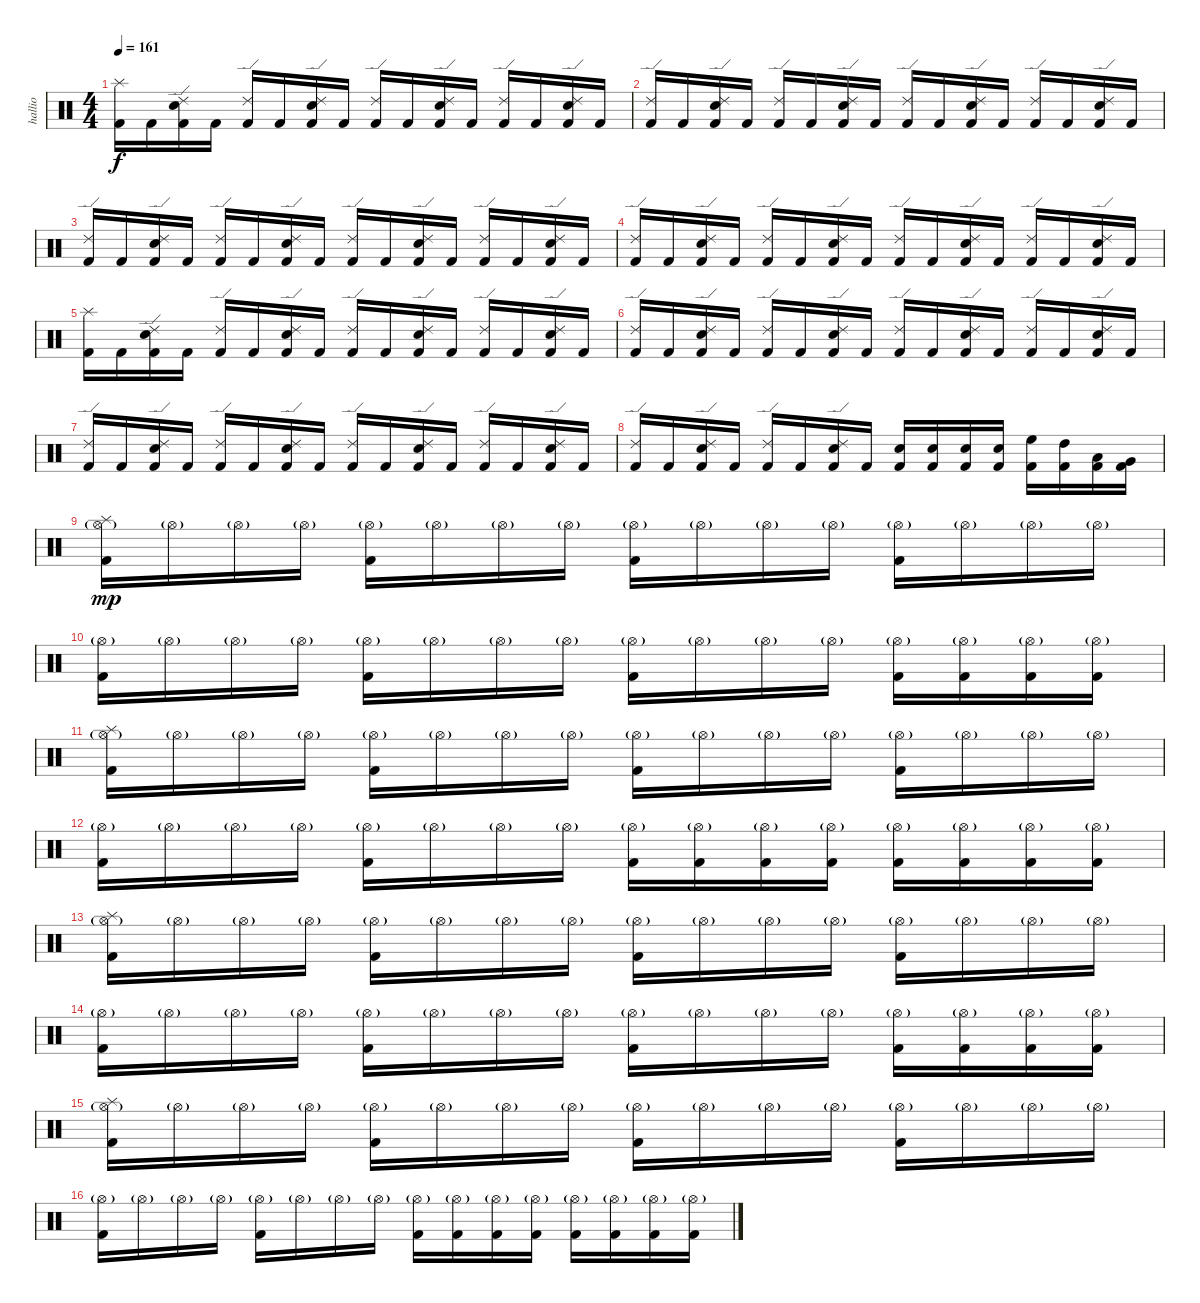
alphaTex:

\track ("hallio" "hallio") {instrument percussion}
\staff {score}
\articulation defaults
\ts (4 4)
\tempo 161
\clef neutral
\ks c
("Kick (hit) 2" "Splash (hit)").16{dy f} "Kick (hit) 2".16 ("Kick (hit) 2" "Snare (hit) 2" "Ride (edge) 2").16 "Kick (hit) 2".16 ("Kick (hit) 2" "Ride (edge) 2").16 "Kick (hit) 2".16 ("Kick (hit) 2" "Snare (hit) 2" "Ride (edge) 2").16 "Kick (hit) 2".16 ("Kick (hit) 2" "Ride (edge) 2").16 "Kick (hit) 2".16 ("Kick (hit) 2" "Snare (hit) 2" "Ride (edge) 2").16 "Kick (hit) 2".16 ("Kick (hit) 2" "Ride (edge) 2").16 "Kick (hit) 2".16 ("Kick (hit) 2" "Snare (hit) 2" "Ride (edge) 2").16 "Kick (hit) 2".16 |
("Kick (hit) 2" "Ride (edge) 2").16 "Kick (hit) 2".16 ("Kick (hit) 2" "Snare (hit) 2" "Ride (edge) 2").16 "Kick (hit) 2".16 ("Kick (hit) 2" "Ride (edge) 2").16 "Kick (hit) 2".16 ("Kick (hit) 2" "Snare (hit) 2" "Ride (edge) 2").16 "Kick (hit) 2".16 ("Kick (hit) 2" "Ride (edge) 2").16 "Kick (hit) 2".16 ("Kick (hit) 2" "Snare (hit) 2" "Ride (edge) 2").16 "Kick (hit) 2".16 ("Kick (hit) 2" "Ride (edge) 2").16 "Kick (hit) 2".16 ("Kick (hit) 2" "Snare (hit) 2" "Ride (edge) 2").16 "Kick (hit) 2".16 |
("Kick (hit) 2" "Ride (edge) 2").16 "Kick (hit) 2".16 ("Kick (hit) 2" "Snare (hit) 2" "Ride (edge) 2").16 "Kick (hit) 2".16 ("Kick (hit) 2" "Ride (edge) 2").16 "Kick (hit) 2".16 ("Kick (hit) 2" "Snare (hit) 2" "Ride (edge) 2").16 "Kick (hit) 2".16 ("Kick (hit) 2" "Ride (edge) 2").16 "Kick (hit) 2".16 ("Kick (hit) 2" "Snare (hit) 2" "Ride (edge) 2").16 "Kick (hit) 2".16 ("Kick (hit) 2" "Ride (edge) 2").16 "Kick (hit) 2".16 ("Kick (hit) 2" "Snare (hit) 2" "Ride (edge) 2").16 "Kick (hit) 2".16 |
("Kick (hit) 2" "Ride (edge) 2").16 "Kick (hit) 2".16 ("Kick (hit) 2" "Snare (hit) 2" "Ride (edge) 2").16 "Kick (hit) 2".16 ("Kick (hit) 2" "Ride (edge) 2").16 "Kick (hit) 2".16 ("Kick (hit) 2" "Snare (hit) 2" "Ride (edge) 2").16 "Kick (hit) 2".16 ("Kick (hit) 2" "Ride (edge) 2").16 "Kick (hit) 2".16 ("Kick (hit) 2" "Snare (hit) 2" "Ride (edge) 2").16 "Kick (hit) 2".16 ("Kick (hit) 2" "Ride (edge) 2").16 "Kick (hit) 2".16 ("Kick (hit) 2" "Snare (hit) 2" "Ride (edge) 2").16 "Kick (hit) 2".16 |
("Kick (hit) 2" "Splash (hit)").16 "Kick (hit) 2".16 ("Kick (hit) 2" "Snare (hit) 2" "Ride (edge) 2").16 "Kick (hit) 2".16 ("Kick (hit) 2" "Ride (edge) 2").16 "Kick (hit) 2".16 ("Kick (hit) 2" "Snare (hit) 2" "Ride (edge) 2").16 "Kick (hit) 2".16 ("Kick (hit) 2" "Ride (edge) 2").16 "Kick (hit) 2".16 ("Kick (hit) 2" "Snare (hit) 2" "Ride (edge) 2").16 "Kick (hit) 2".16 ("Kick (hit) 2" "Ride (edge) 2").16 "Kick (hit) 2".16 ("Kick (hit) 2" "Snare (hit) 2" "Ride (edge) 2").16 "Kick (hit) 2".16 |
("Kick (hit) 2" "Ride (edge) 2").16 "Kick (hit) 2".16 ("Kick (hit) 2" "Snare (hit) 2" "Ride (edge) 2").16 "Kick (hit) 2".16 ("Kick (hit) 2" "Ride (edge) 2").16 "Kick (hit) 2".16 ("Kick (hit) 2" "Snare (hit) 2" "Ride (edge) 2").16 "Kick (hit) 2".16 ("Kick (hit) 2" "Ride (edge) 2").16 "Kick (hit) 2".16 ("Kick (hit) 2" "Snare (hit) 2" "Ride (edge) 2").16 "Kick (hit) 2".16 ("Kick (hit) 2" "Ride (edge) 2").16 "Kick (hit) 2".16 ("Kick (hit) 2" "Snare (hit) 2" "Ride (edge) 2").16 "Kick (hit) 2".16 |
("Kick (hit) 2" "Ride (edge) 2").16 "Kick (hit) 2".16 ("Kick (hit) 2" "Snare (hit) 2" "Ride (edge) 2").16 "Kick (hit) 2".16 ("Kick (hit) 2" "Ride (edge) 2").16 "Kick (hit) 2".16 ("Kick (hit) 2" "Snare (hit) 2" "Ride (edge) 2").16 "Kick (hit) 2".16 ("Kick (hit) 2" "Ride (edge) 2").16 "Kick (hit) 2".16 ("Kick (hit) 2" "Snare (hit) 2" "Ride (edge) 2").16 "Kick (hit) 2".16 ("Kick (hit) 2" "Ride (edge) 2").16 "Kick (hit) 2".16 ("Kick (hit) 2" "Snare (hit) 2" "Ride (edge) 2").16 "Kick (hit) 2".16 |
("Kick (hit) 2" "Ride (edge) 2").16 "Kick (hit) 2".16 ("Kick (hit) 2" "Snare (hit) 2" "Ride (edge) 2").16 "Kick (hit) 2".16 ("Kick (hit) 2" "Ride (edge) 2").16 "Kick (hit) 2".16 ("Kick (hit) 2" "Snare (hit) 2" "Ride (edge) 2").16 "Kick (hit) 2".16 ("Kick (hit) 2" "Snare (hit) 2").16 ("Kick (hit) 2" "Snare (hit) 2").16 ("Kick (hit) 2" "Snare (hit) 2").16 ("Kick (hit) 2" "Snare (hit) 2").16 ("Kick (hit) 2" "High Floor Tom (hit)").16 ("Kick (hit) 2" "High Tom (hit)").16 ("Kick (hit) 2" "Low Tom (hit)").16 ("Kick (hit) 2" "Very Low Tom (hit)").16 |
("Hi-Hat (open)"{g} "Kick (hit) 2" "Splash (hit)").16{dy mp} "Hi-Hat (open)"{g}.16 "Hi-Hat (open)"{g}.16 "Hi-Hat (open)"{g}.16 ("Hi-Hat (open)"{g} "Kick (hit) 2").16 "Hi-Hat (open)"{g}.16 "Hi-Hat (open)"{g}.16 "Hi-Hat (open)"{g}.16 ("Hi-Hat (open)"{g} "Kick (hit) 2").16 "Hi-Hat (open)"{g}.16 "Hi-Hat (open)"{g}.16 "Hi-Hat (open)"{g}.16 ("Hi-Hat (open)"{g} "Kick (hit) 2").16 "Hi-Hat (open)"{g}.16 "Hi-Hat (open)"{g}.16 "Hi-Hat (open)"{g}.16 |
("Hi-Hat (open)"{g} "Kick (hit) 2").16 "Hi-Hat (open)"{g}.16 "Hi-Hat (open)"{g}.16 "Hi-Hat (open)"{g}.16 ("Hi-Hat (open)"{g} "Kick (hit) 2").16 "Hi-Hat (open)"{g}.16 "Hi-Hat (open)"{g}.16 "Hi-Hat (open)"{g}.16 ("Hi-Hat (open)"{g} "Kick (hit) 2").16 "Hi-Hat (open)"{g}.16 "Hi-Hat (open)"{g}.16 "Hi-Hat (open)"{g}.16 ("Hi-Hat (open)"{g} "Kick (hit) 2").16 ("Hi-Hat (open)"{g} "Kick (hit) 2").16 ("Hi-Hat (open)"{g} "Kick (hit) 2").16 ("Hi-Hat (open)"{g} "Kick (hit) 2").16 |
("Hi-Hat (open)"{g} "Kick (hit) 2" "Splash (hit)").16 "Hi-Hat (open)"{g}.16 "Hi-Hat (open)"{g}.16 "Hi-Hat (open)"{g}.16 ("Hi-Hat (open)"{g} "Kick (hit) 2").16 "Hi-Hat (open)"{g}.16 "Hi-Hat (open)"{g}.16 "Hi-Hat (open)"{g}.16 ("Hi-Hat (open)"{g} "Kick (hit) 2").16 "Hi-Hat (open)"{g}.16 "Hi-Hat (open)"{g}.16 "Hi-Hat (open)"{g}.16 ("Hi-Hat (open)"{g} "Kick (hit) 2").16 "Hi-Hat (open)"{g}.16 "Hi-Hat (open)"{g}.16 "Hi-Hat (open)"{g}.16 |
("Hi-Hat (open)"{g} "Kick (hit) 2").16 "Hi-Hat (open)"{g}.16 "Hi-Hat (open)"{g}.16 "Hi-Hat (open)"{g}.16 ("Hi-Hat (open)"{g} "Kick (hit) 2").16 "Hi-Hat (open)"{g}.16 "Hi-Hat (open)"{g}.16 "Hi-Hat (open)"{g}.16 ("Hi-Hat (open)"{g} "Kick (hit) 2").16 ("Hi-Hat (open)"{g} "Kick (hit) 2").16 ("Hi-Hat (open)"{g} "Kick (hit) 2").16 ("Hi-Hat (open)"{g} "Kick (hit) 2").16 ("Hi-Hat (open)"{g} "Kick (hit) 2").16 ("Hi-Hat (open)"{g} "Kick (hit) 2").16 ("Hi-Hat (open)"{g} "Kick (hit) 2").16 ("Hi-Hat (open)"{g} "Kick (hit) 2").16 |
("Hi-Hat (open)"{g} "Kick (hit) 2" "Splash (hit)").16 "Hi-Hat (open)"{g}.16 "Hi-Hat (open)"{g}.16 "Hi-Hat (open)"{g}.16 ("Hi-Hat (open)"{g} "Kick (hit) 2").16 "Hi-Hat (open)"{g}.16 "Hi-Hat (open)"{g}.16 "Hi-Hat (open)"{g}.16 ("Hi-Hat (open)"{g} "Kick (hit) 2").16 "Hi-Hat (open)"{g}.16 "Hi-Hat (open)"{g}.16 "Hi-Hat (open)"{g}.16 ("Hi-Hat (open)"{g} "Kick (hit) 2").16 "Hi-Hat (open)"{g}.16 "Hi-Hat (open)"{g}.16 "Hi-Hat (open)"{g}.16 |
("Hi-Hat (open)"{g} "Kick (hit) 2").16 "Hi-Hat (open)"{g}.16 "Hi-Hat (open)"{g}.16 "Hi-Hat (open)"{g}.16 ("Hi-Hat (open)"{g} "Kick (hit) 2").16 "Hi-Hat (open)"{g}.16 "Hi-Hat (open)"{g}.16 "Hi-Hat (open)"{g}.16 ("Hi-Hat (open)"{g} "Kick (hit) 2").16 "Hi-Hat (open)"{g}.16 "Hi-Hat (open)"{g}.16 "Hi-Hat (open)"{g}.16 ("Hi-Hat (open)"{g} "Kick (hit) 2").16 ("Hi-Hat (open)"{g} "Kick (hit) 2").16 ("Hi-Hat (open)"{g} "Kick (hit) 2").16 ("Hi-Hat (open)"{g} "Kick (hit) 2").16 |
("Hi-Hat (open)"{g} "Kick (hit) 2" "Splash (hit)").16 "Hi-Hat (open)"{g}.16 "Hi-Hat (open)"{g}.16 "Hi-Hat (open)"{g}.16 ("Hi-Hat (open)"{g} "Kick (hit) 2").16 "Hi-Hat (open)"{g}.16 "Hi-Hat (open)"{g}.16 "Hi-Hat (open)"{g}.16 ("Hi-Hat (open)"{g} "Kick (hit) 2").16 "Hi-Hat (open)"{g}.16 "Hi-Hat (open)"{g}.16 "Hi-Hat (open)"{g}.16 ("Hi-Hat (open)"{g} "Kick (hit) 2").16 "Hi-Hat (open)"{g}.16 "Hi-Hat (open)"{g}.16 "Hi-Hat (open)"{g}.16 |
("Hi-Hat (open)"{g} "Kick (hit) 2").16 "Hi-Hat (open)"{g}.16 "Hi-Hat (open)"{g}.16 "Hi-Hat (open)"{g}.16 ("Hi-Hat (open)"{g} "Kick (hit) 2").16 "Hi-Hat (open)"{g}.16 "Hi-Hat (open)"{g}.16 "Hi-Hat (open)"{g}.16 ("Hi-Hat (open)"{g} "Kick (hit) 2").16 ("Hi-Hat (open)"{g} "Kick (hit) 2").16 ("Hi-Hat (open)"{g} "Kick (hit) 2").16 ("Hi-Hat (open)"{g} "Kick (hit) 2").16 ("Hi-Hat (open)"{g} "Kick (hit) 2").16 ("Hi-Hat (open)"{g} "Kick (hit) 2").16 ("Hi-Hat (open)"{g} "Kick (hit) 2").16 ("Hi-Hat (open)"{g} "Kick (hit) 2").16
